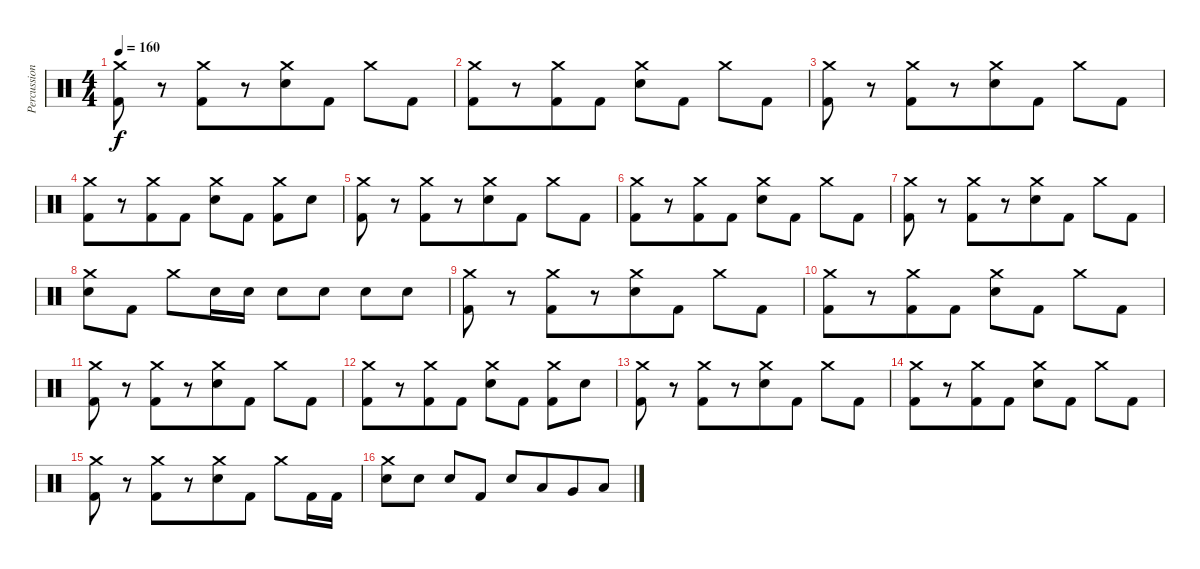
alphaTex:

\track ("Percussion" "Percussion") {instrument percussion}
\staff {score}
\articulation defaults
\ts (4 4)
\tempo 160
\clef neutral
\ks c
("Crash medium (hit)" "Kick (hit) 2").8{dy f} r.8 ("Crash medium (hit)" "Kick (hit) 2").8{beam merge} r.8 ("Crash medium (hit)" "Electric Snare (hit)").8{beam merge} "Kick (hit) 2".8 "Crash medium (hit)".8{beam merge} "Kick (hit) 2".8 |
("Crash medium (hit)" "Kick (hit) 2").8{beam merge} r.8 ("Crash medium (hit)" "Kick (hit) 2").8{beam merge} "Kick (hit) 2".8 ("Crash medium (hit)" "Electric Snare (hit)").8 "Kick (hit) 2".8 "Crash medium (hit)".8{beam merge} "Kick (hit) 2".8 |
("Crash medium (hit)" "Kick (hit) 2").8 r.8 ("Crash medium (hit)" "Kick (hit) 2").8{beam merge} r.8 ("Crash medium (hit)" "Electric Snare (hit)").8{beam merge} "Kick (hit) 2".8 "Crash medium (hit)".8{beam merge} "Kick (hit) 2".8 |
("Crash medium (hit)" "Kick (hit) 2").8{beam merge} r.8 ("Crash medium (hit)" "Kick (hit) 2").8{beam merge} "Kick (hit) 2".8 ("Crash medium (hit)" "Electric Snare (hit)").8 "Kick (hit) 2".8 ("Crash medium (hit)" "Kick (hit) 2").8 "Electric Snare (hit)".8 |
("Crash medium (hit)" "Kick (hit) 2").8 r.8 ("Crash medium (hit)" "Kick (hit) 2").8{beam merge} r.8 ("Crash medium (hit)" "Electric Snare (hit)").8{beam merge} "Kick (hit) 2".8 "Crash medium (hit)".8{beam merge} "Kick (hit) 2".8 |
("Crash medium (hit)" "Kick (hit) 2").8{beam merge} r.8 ("Crash medium (hit)" "Kick (hit) 2").8{beam merge} "Kick (hit) 2".8 ("Crash medium (hit)" "Electric Snare (hit)").8 "Kick (hit) 2".8 "Crash medium (hit)".8{beam merge} "Kick (hit) 2".8 |
("Crash medium (hit)" "Kick (hit) 2").8 r.8 ("Crash medium (hit)" "Kick (hit) 2").8{beam merge} r.8 ("Crash medium (hit)" "Electric Snare (hit)").8{beam merge} "Kick (hit) 2".8 "Crash medium (hit)".8{beam merge} "Kick (hit) 2".8 |
("Crash medium (hit)" "Electric Snare (hit)").8{beam merge} "Kick (hit) 2".8 "Crash medium (hit)".8 "Electric Snare (hit)".16 "Electric Snare (hit)".16 "Electric Snare (hit)".8{beam merge} "Electric Snare (hit)".8 "Electric Snare (hit)".8 "Electric Snare (hit)".8 |
("Crash medium (hit)" "Kick (hit) 2").8 r.8 ("Crash medium (hit)" "Kick (hit) 2").8{beam merge} r.8 ("Crash medium (hit)" "Electric Snare (hit)").8{beam merge} "Kick (hit) 2".8 "Crash medium (hit)".8{beam merge} "Kick (hit) 2".8 |
("Crash medium (hit)" "Kick (hit) 2").8{beam merge} r.8 ("Crash medium (hit)" "Kick (hit) 2").8{beam merge} "Kick (hit) 2".8 ("Crash medium (hit)" "Electric Snare (hit)").8 "Kick (hit) 2".8 "Crash medium (hit)".8{beam merge} "Kick (hit) 2".8 |
("Crash medium (hit)" "Kick (hit) 2").8 r.8 ("Crash medium (hit)" "Kick (hit) 2").8{beam merge} r.8 ("Crash medium (hit)" "Electric Snare (hit)").8{beam merge} "Kick (hit) 2".8 "Crash medium (hit)".8{beam merge} "Kick (hit) 2".8 |
("Crash medium (hit)" "Kick (hit) 2").8{beam merge} r.8 ("Crash medium (hit)" "Kick (hit) 2").8{beam merge} "Kick (hit) 2".8 ("Crash medium (hit)" "Electric Snare (hit)").8 "Kick (hit) 2".8 ("Crash medium (hit)" "Kick (hit) 2").8 "Electric Snare (hit)".8 |
("Crash medium (hit)" "Kick (hit) 2").8 r.8 ("Crash medium (hit)" "Kick (hit) 2").8{beam merge} r.8 ("Crash medium (hit)" "Electric Snare (hit)").8{beam merge} "Kick (hit) 2".8 "Crash medium (hit)".8{beam merge} "Kick (hit) 2".8 |
("Crash medium (hit)" "Kick (hit) 2").8{beam merge} r.8 ("Crash medium (hit)" "Kick (hit) 2").8{beam merge} "Kick (hit) 2".8 ("Crash medium (hit)" "Electric Snare (hit)").8 "Kick (hit) 2".8 "Crash medium (hit)".8{beam merge} "Kick (hit) 2".8 |
("Crash medium (hit)" "Kick (hit) 2").8 r.8 ("Crash medium (hit)" "Kick (hit) 2").8{beam merge} r.8 ("Crash medium (hit)" "Electric Snare (hit)").8{beam merge} "Kick (hit) 2".8 "Crash medium (hit)".8{beam merge} "Kick (hit) 2".16{beam merge} "Kick (hit) 2".16 |
("Crash medium (hit)" "Electric Snare (hit)").8{beam merge} "Electric Snare (hit)".8 "Electric Snare (hit)".8 "Kick (hit) 2".8 "Electric Snare (hit)".8{beam merge} "Low Tom (hit)".8{beam merge} "Very Low Tom (hit)".8 "Low Floor Tom (hit)".8
